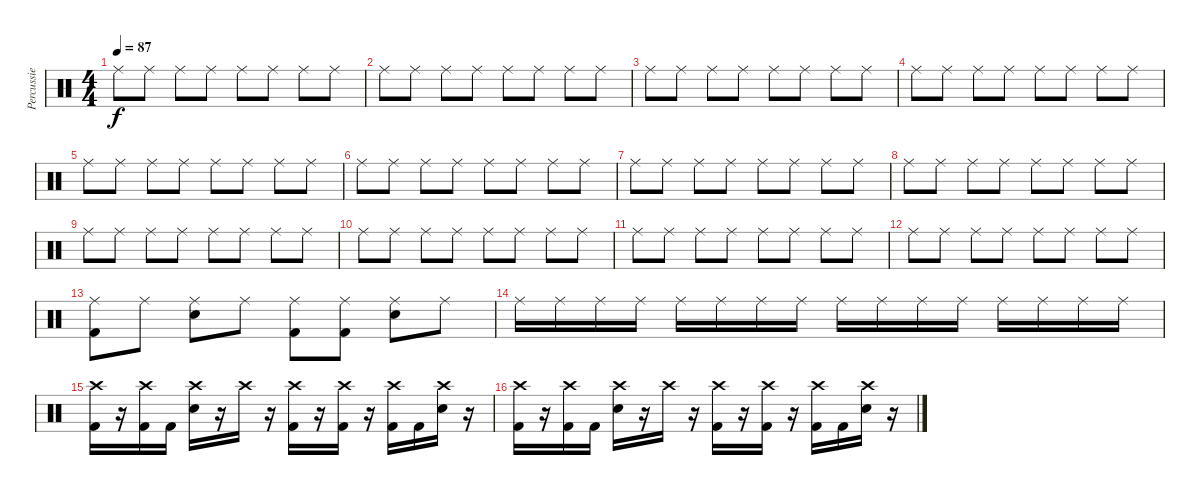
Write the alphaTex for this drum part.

\track ("Percussie" "Percussie") {instrument percussion}
\staff {score}
\articulation defaults
\ts (4 4)
\tempo 87
\clef neutral
\ks c "Ride (middle)".8{dy f} "Ride (middle)".8 "Ride (middle)".8 "Ride (middle)".8 "Ride (middle)".8 "Ride (middle)".8 "Ride (middle)".8 "Ride (middle)".8
|
"Ride (middle)".8 "Ride (middle)".8 "Ride (middle)".8 "Ride (middle)".8 "Ride (middle)".8 "Ride (middle)".8 "Ride (middle)".8 "Ride (middle)".8 |
"Ride (middle)".8 "Ride (middle)".8 "Ride (middle)".8 "Ride (middle)".8 "Ride (middle)".8 "Ride (middle)".8 "Ride (middle)".8 "Ride (middle)".8 |
"Ride (middle)".8 "Ride (middle)".8 "Ride (middle)".8 "Ride (middle)".8 "Ride (middle)".8 "Ride (middle)".8 "Ride (middle)".8 "Ride (middle)".8 |
"Ride (middle)".8 "Ride (middle)".8 "Ride (middle)".8 "Ride (middle)".8 "Ride (middle)".8 "Ride (middle)".8 "Ride (middle)".8 "Ride (middle)".8 |
"Ride (middle)".8 "Ride (middle)".8 "Ride (middle)".8 "Ride (middle)".8 "Ride (middle)".8 "Ride (middle)".8 "Ride (middle)".8 "Ride (middle)".8 |
"Ride (middle)".8 "Ride (middle)".8 "Ride (middle)".8 "Ride (middle)".8 "Ride (middle)".8 "Ride (middle)".8 "Ride (middle)".8 "Ride (middle)".8 |
"Ride (middle)".8 "Ride (middle)".8 "Ride (middle)".8 "Ride (middle)".8 "Ride (middle)".8 "Ride (middle)".8 "Ride (middle)".8 "Ride (middle)".8 |
"Ride (middle)".8 "Ride (middle)".8 "Ride (middle)".8 "Ride (middle)".8 "Ride (middle)".8 "Ride (middle)".8 "Ride (middle)".8 "Ride (middle)".8 |
"Ride (middle)".8 "Ride (middle)".8 "Ride (middle)".8 "Ride (middle)".8 "Ride (middle)".8 "Ride (middle)".8 "Ride (middle)".8 "Ride (middle)".8 |
"Ride (middle)".8 "Ride (middle)".8 "Ride (middle)".8 "Ride (middle)".8 "Ride (middle)".8 "Ride (middle)".8 "Ride (middle)".8 "Ride (middle)".8 |
"Ride (middle)".8 "Ride (middle)".8 "Ride (middle)".8 "Ride (middle)".8 "Ride (middle)".8 "Ride (middle)".8 "Ride (middle)".8 "Ride (middle)".8 |
("Kick (hit) 2" "Ride (middle)").8 "Ride (middle)".8 ("Snare (hit) 2" "Ride (middle)").8 "Ride (middle)".8 ("Kick (hit) 2" "Ride (middle)").8 ("Kick (hit) 2" "Ride (middle)").8 ("Snare (hit) 2" "Ride (middle)").8 "Ride (middle)".8 |
"Ride (middle)".16 "Ride (middle)".16 "Ride (middle)".16 "Ride (middle)".16 "Ride (middle)".16 "Ride (middle)".16 "Ride (middle)".16 "Ride (middle)".16 "Ride (middle)".16 "Ride (middle)".16 "Ride (middle)".16 "Ride (middle)".16 "Ride (middle)".16 "Ride (middle)".16 "Ride (middle)".16 "Ride (middle)".16 |
("Kick (hit) 2" "Crash high (hit)").16 r.16 ("Kick (hit) 2" "Crash high (hit)").16 "Kick (hit) 2".16 ("Snare (hit) 2" "Crash high (hit)").16 r.16 "Crash high (hit)".16 r.16 ("Kick (hit) 2" "Crash high (hit)").16 r.16 ("Kick (hit) 2" "Crash high (hit)").16 r.16 ("Kick (hit) 2" "Crash high (hit)").16 "Kick (hit) 2".16 ("Snare (hit) 2" "Crash high (hit)").16 r.16 |
("Kick (hit) 2" "Crash high (hit)").16 r.16 ("Kick (hit) 2" "Crash high (hit)").16 "Kick (hit) 2".16 ("Snare (hit) 2" "Crash high (hit)").16 r.16 "Crash high (hit)".16 r.16 ("Kick (hit) 2" "Crash high (hit)").16 r.16 ("Kick (hit) 2" "Crash high (hit)").16 r.16 ("Kick (hit) 2" "Crash high (hit)").16 "Kick (hit) 2".16 ("Snare (hit) 2" "Crash high (hit)").16 r.16
